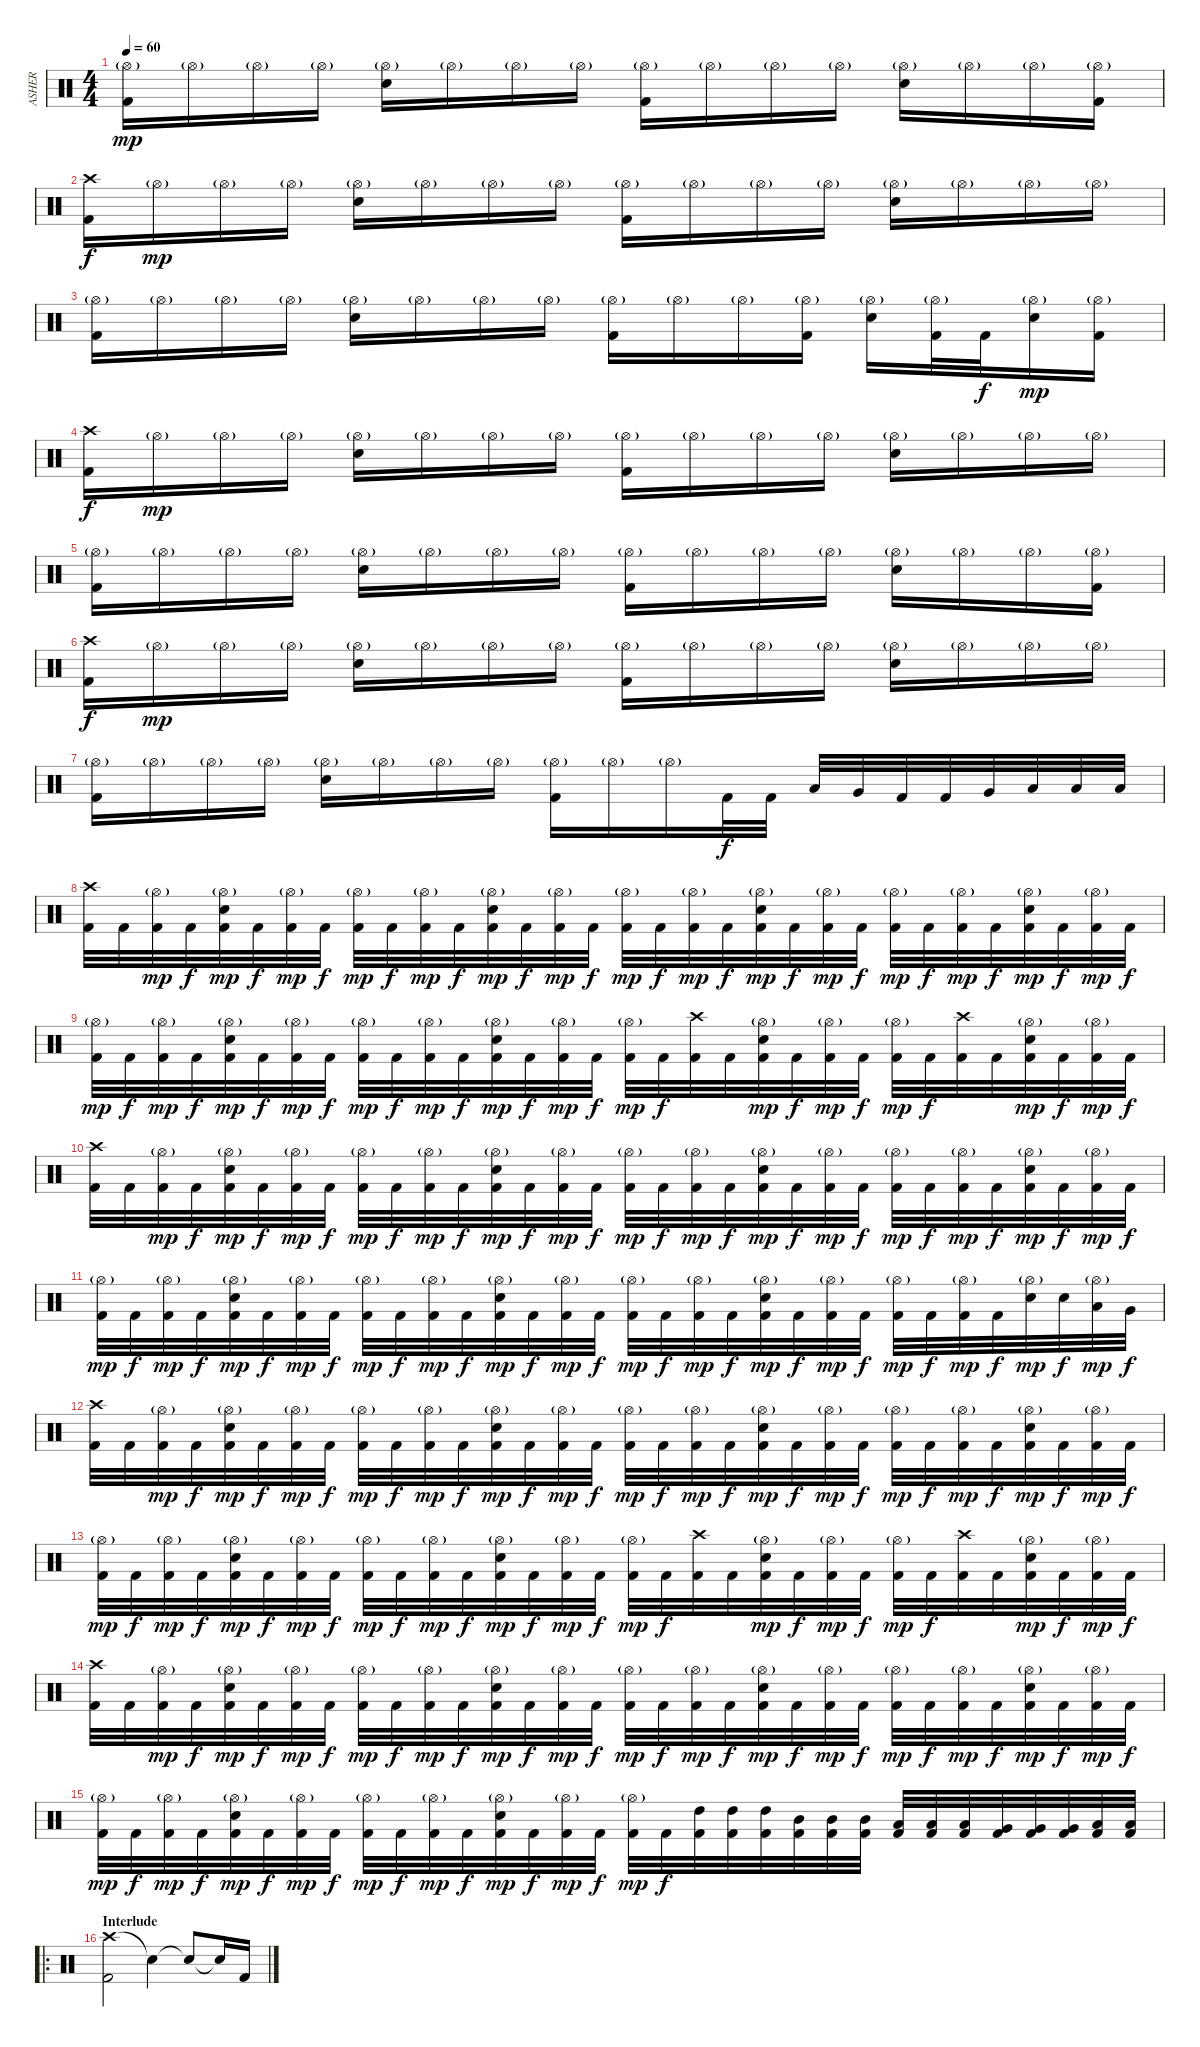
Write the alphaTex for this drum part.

\track ("ASHER" "ASHER") {instrument percussion}
\staff {score}
\articulation defaults
\ts (4 4)
\tempo 60
\clef neutral
\ks c
("Hi-Hat (open)"{g} "Kick (hit) 2").16{dy mp} "Hi-Hat (open)"{g}.16 "Hi-Hat (open)"{g}.16 "Hi-Hat (open)"{g}.16 ("Hi-Hat (open)"{g} "Electric Snare (hit)").16 "Hi-Hat (open)"{g}.16 "Hi-Hat (open)"{g}.16 "Hi-Hat (open)"{g}.16 ("Hi-Hat (open)"{g} "Kick (hit) 2").16 "Hi-Hat (open)"{g}.16 "Hi-Hat (open)"{g}.16 "Hi-Hat (open)"{g}.16 ("Hi-Hat (open)"{g} "Electric Snare (hit)").16 "Hi-Hat (open)"{g}.16 "Hi-Hat (open)"{g}.16 ("Hi-Hat (open)"{g} "Kick (hit) 2").16 |
("Crash high (hit)" "Kick (hit) 2").16{dy f} "Hi-Hat (open)"{g}.16{dy mp} "Hi-Hat (open)"{g}.16 "Hi-Hat (open)"{g}.16 ("Hi-Hat (open)"{g} "Electric Snare (hit)").16 "Hi-Hat (open)"{g}.16 "Hi-Hat (open)"{g}.16 "Hi-Hat (open)"{g}.16 ("Hi-Hat (open)"{g} "Kick (hit) 2").16 "Hi-Hat (open)"{g}.16 "Hi-Hat (open)"{g}.16 "Hi-Hat (open)"{g}.16 ("Hi-Hat (open)"{g} "Electric Snare (hit)").16 "Hi-Hat (open)"{g}.16 "Hi-Hat (open)"{g}.16 "Hi-Hat (open)"{g}.16 |
("Hi-Hat (open)"{g} "Kick (hit) 2").16 "Hi-Hat (open)"{g}.16 "Hi-Hat (open)"{g}.16 "Hi-Hat (open)"{g}.16 ("Hi-Hat (open)"{g} "Electric Snare (hit)").16 "Hi-Hat (open)"{g}.16 "Hi-Hat (open)"{g}.16 "Hi-Hat (open)"{g}.16 ("Hi-Hat (open)"{g} "Kick (hit) 2").16 "Hi-Hat (open)"{g}.16 "Hi-Hat (open)"{g}.16 ("Hi-Hat (open)"{g} "Kick (hit) 2").16 ("Hi-Hat (open)"{g} "Electric Snare (hit)").16 ("Hi-Hat (open)"{g} "Kick (hit) 2").32 "Kick (hit) 2".32{dy f} ("Hi-Hat (open)"{g} "Electric Snare (hit)").16{dy mp} ("Hi-Hat (open)"{g} "Kick (hit) 2").16 |
("Crash high (hit)" "Kick (hit) 2").16{dy f} "Hi-Hat (open)"{g}.16{dy mp} "Hi-Hat (open)"{g}.16 "Hi-Hat (open)"{g}.16 ("Hi-Hat (open)"{g} "Electric Snare (hit)").16 "Hi-Hat (open)"{g}.16 "Hi-Hat (open)"{g}.16 "Hi-Hat (open)"{g}.16 ("Hi-Hat (open)"{g} "Kick (hit) 2").16 "Hi-Hat (open)"{g}.16 "Hi-Hat (open)"{g}.16 "Hi-Hat (open)"{g}.16 ("Hi-Hat (open)"{g} "Electric Snare (hit)").16 "Hi-Hat (open)"{g}.16 "Hi-Hat (open)"{g}.16 "Hi-Hat (open)"{g}.16 |
("Hi-Hat (open)"{g} "Kick (hit) 2").16 "Hi-Hat (open)"{g}.16 "Hi-Hat (open)"{g}.16 "Hi-Hat (open)"{g}.16 ("Hi-Hat (open)"{g} "Electric Snare (hit)").16 "Hi-Hat (open)"{g}.16 "Hi-Hat (open)"{g}.16 "Hi-Hat (open)"{g}.16 ("Hi-Hat (open)"{g} "Kick (hit) 2").16 "Hi-Hat (open)"{g}.16 "Hi-Hat (open)"{g}.16 "Hi-Hat (open)"{g}.16 ("Hi-Hat (open)"{g} "Electric Snare (hit)").16 "Hi-Hat (open)"{g}.16 "Hi-Hat (open)"{g}.16 ("Hi-Hat (open)"{g} "Kick (hit) 2").16 |
("Crash high (hit)" "Kick (hit) 2").16{dy f} "Hi-Hat (open)"{g}.16{dy mp} "Hi-Hat (open)"{g}.16 "Hi-Hat (open)"{g}.16 ("Hi-Hat (open)"{g} "Electric Snare (hit)").16 "Hi-Hat (open)"{g}.16 "Hi-Hat (open)"{g}.16 "Hi-Hat (open)"{g}.16 ("Hi-Hat (open)"{g} "Kick (hit) 2").16 "Hi-Hat (open)"{g}.16 "Hi-Hat (open)"{g}.16 "Hi-Hat (open)"{g}.16 ("Hi-Hat (open)"{g} "Electric Snare (hit)").16 "Hi-Hat (open)"{g}.16 "Hi-Hat (open)"{g}.16 "Hi-Hat (open)"{g}.16 |
("Hi-Hat (open)"{g} "Kick (hit) 2").16 "Hi-Hat (open)"{g}.16 "Hi-Hat (open)"{g}.16 "Hi-Hat (open)"{g}.16 ("Hi-Hat (open)"{g} "Electric Snare (hit)").16 "Hi-Hat (open)"{g}.16 "Hi-Hat (open)"{g}.16 "Hi-Hat (open)"{g}.16 ("Hi-Hat (open)"{g} "Kick (hit) 2").16 "Hi-Hat (open)"{g}.16 "Hi-Hat (open)"{g}.16 "Kick (hit) 2".32{dy f} "Kick (hit) 2".32 "Low Tom (hit)".32 "Very Low Tom (hit)".32 "Kick (hit) 2".32 "Kick (hit) 2".32 "Very Low Tom (hit)".32 "Low Floor Tom (hit)".32 "Low Floor Tom (hit)".32 "Low Floor Tom (hit)".32 |
("Crash high (hit)" "Kick (hit) 2").32 "Kick (hit) 2".32 ("Hi-Hat (open)"{g} "Kick (hit) 2").32{dy mp} "Kick (hit) 2".32{dy f} ("Hi-Hat (open)"{g} "Electric Snare (hit)" "Kick (hit) 2").32{dy mp} "Kick (hit) 2".32{dy f} ("Hi-Hat (open)"{g} "Kick (hit) 2").32{dy mp} "Kick (hit) 2".32{dy f} ("Hi-Hat (open)"{g} "Kick (hit) 2").32{dy mp} "Kick (hit) 2".32{dy f} ("Hi-Hat (open)"{g} "Kick (hit) 2").32{dy mp} "Kick (hit) 2".32{dy f} ("Hi-Hat (open)"{g} "Electric Snare (hit)" "Kick (hit) 2").32{dy mp} "Kick (hit) 2".32{dy f} ("Hi-Hat (open)"{g} "Kick (hit) 2").32{dy mp} "Kick (hit) 2".32{dy f} ("Hi-Hat (open)"{g} "Kick (hit) 2").32{dy mp} "Kick (hit) 2".32{dy f} ("Hi-Hat (open)"{g} "Kick (hit) 2").32{dy mp} "Kick (hit) 2".32{dy f} ("Hi-Hat (open)"{g} "Electric Snare (hit)" "Kick (hit) 2").32{dy mp} "Kick (hit) 2".32{dy f} ("Hi-Hat (open)"{g} "Kick (hit) 2").32{dy mp} "Kick (hit) 2".32{dy f} ("Hi-Hat (open)"{g} "Kick (hit) 2").32{dy mp} "Kick (hit) 2".32{dy f} ("Hi-Hat (open)"{g} "Kick (hit) 2").32{dy mp} "Kick (hit) 2".32{dy f} ("Hi-Hat (open)"{g} "Electric Snare (hit)" "Kick (hit) 2").32{dy mp} "Kick (hit) 2".32{dy f} ("Hi-Hat (open)"{g} "Kick (hit) 2").32{dy mp} "Kick (hit) 2".32{dy f} |
("Hi-Hat (open)"{g} "Kick (hit) 2").32{dy mp} "Kick (hit) 2".32{dy f} ("Hi-Hat (open)"{g} "Kick (hit) 2").32{dy mp} "Kick (hit) 2".32{dy f} ("Hi-Hat (open)"{g} "Electric Snare (hit)" "Kick (hit) 2").32{dy mp} "Kick (hit) 2".32{dy f} ("Hi-Hat (open)"{g} "Kick (hit) 2").32{dy mp} "Kick (hit) 2".32{dy f} ("Hi-Hat (open)"{g} "Kick (hit) 2").32{dy mp} "Kick (hit) 2".32{dy f} ("Hi-Hat (open)"{g} "Kick (hit) 2").32{dy mp} "Kick (hit) 2".32{dy f} ("Hi-Hat (open)"{g} "Electric Snare (hit)" "Kick (hit) 2").32{dy mp} "Kick (hit) 2".32{dy f} ("Hi-Hat (open)"{g} "Kick (hit) 2").32{dy mp} "Kick (hit) 2".32{dy f} ("Hi-Hat (open)"{g} "Kick (hit) 2").32{dy mp} "Kick (hit) 2".32{dy f} ("Crash high (hit)" "Kick (hit) 2").32 "Kick (hit) 2".32 ("Hi-Hat (open)"{g} "Electric Snare (hit)" "Kick (hit) 2").32{dy mp} "Kick (hit) 2".32{dy f} ("Hi-Hat (open)"{g} "Kick (hit) 2").32{dy mp} "Kick (hit) 2".32{dy f} ("Hi-Hat (open)"{g} "Kick (hit) 2").32{dy mp} "Kick (hit) 2".32{dy f} ("Crash high (hit)" "Kick (hit) 2").32 "Kick (hit) 2".32 ("Hi-Hat (open)"{g} "Electric Snare (hit)" "Kick (hit) 2").32{dy mp} "Kick (hit) 2".32{dy f} ("Hi-Hat (open)"{g} "Kick (hit) 2").32{dy mp} "Kick (hit) 2".32{dy f} |
("Crash high (hit)" "Kick (hit) 2").32 "Kick (hit) 2".32 ("Hi-Hat (open)"{g} "Kick (hit) 2").32{dy mp} "Kick (hit) 2".32{dy f} ("Hi-Hat (open)"{g} "Electric Snare (hit)" "Kick (hit) 2").32{dy mp} "Kick (hit) 2".32{dy f} ("Hi-Hat (open)"{g} "Kick (hit) 2").32{dy mp} "Kick (hit) 2".32{dy f} ("Hi-Hat (open)"{g} "Kick (hit) 2").32{dy mp} "Kick (hit) 2".32{dy f} ("Hi-Hat (open)"{g} "Kick (hit) 2").32{dy mp} "Kick (hit) 2".32{dy f} ("Hi-Hat (open)"{g} "Electric Snare (hit)" "Kick (hit) 2").32{dy mp} "Kick (hit) 2".32{dy f} ("Hi-Hat (open)"{g} "Kick (hit) 2").32{dy mp} "Kick (hit) 2".32{dy f} ("Hi-Hat (open)"{g} "Kick (hit) 2").32{dy mp} "Kick (hit) 2".32{dy f} ("Hi-Hat (open)"{g} "Kick (hit) 2").32{dy mp} "Kick (hit) 2".32{dy f} ("Hi-Hat (open)"{g} "Electric Snare (hit)" "Kick (hit) 2").32{dy mp} "Kick (hit) 2".32{dy f} ("Hi-Hat (open)"{g} "Kick (hit) 2").32{dy mp} "Kick (hit) 2".32{dy f} ("Hi-Hat (open)"{g} "Kick (hit) 2").32{dy mp} "Kick (hit) 2".32{dy f} ("Hi-Hat (open)"{g} "Kick (hit) 2").32{dy mp} "Kick (hit) 2".32{dy f} ("Hi-Hat (open)"{g} "Electric Snare (hit)" "Kick (hit) 2").32{dy mp} "Kick (hit) 2".32{dy f} ("Hi-Hat (open)"{g} "Kick (hit) 2").32{dy mp} "Kick (hit) 2".32{dy f} |
("Hi-Hat (open)"{g} "Kick (hit) 2").32{dy mp} "Kick (hit) 2".32{dy f} ("Hi-Hat (open)"{g} "Kick (hit) 2").32{dy mp} "Kick (hit) 2".32{dy f} ("Hi-Hat (open)"{g} "Electric Snare (hit)" "Kick (hit) 2").32{dy mp} "Kick (hit) 2".32{dy f} ("Hi-Hat (open)"{g} "Kick (hit) 2").32{dy mp} "Kick (hit) 2".32{dy f} ("Hi-Hat (open)"{g} "Kick (hit) 2").32{dy mp} "Kick (hit) 2".32{dy f} ("Hi-Hat (open)"{g} "Kick (hit) 2").32{dy mp} "Kick (hit) 2".32{dy f} ("Hi-Hat (open)"{g} "Electric Snare (hit)" "Kick (hit) 2").32{dy mp} "Kick (hit) 2".32{dy f} ("Hi-Hat (open)"{g} "Kick (hit) 2").32{dy mp} "Kick (hit) 2".32{dy f} ("Hi-Hat (open)"{g} "Kick (hit) 2").32{dy mp} "Kick (hit) 2".32{dy f} ("Hi-Hat (open)"{g} "Kick (hit) 2").32{dy mp} "Kick (hit) 2".32{dy f} ("Hi-Hat (open)"{g} "Electric Snare (hit)" "Kick (hit) 2").32{dy mp} "Kick (hit) 2".32{dy f} ("Hi-Hat (open)"{g} "Kick (hit) 2").32{dy mp} "Kick (hit) 2".32{dy f} ("Hi-Hat (open)"{g} "Kick (hit) 2").32{dy mp} "Kick (hit) 2".32{dy f} ("Hi-Hat (open)"{g} "Kick (hit) 2").32{dy mp} "Kick (hit) 2".32{dy f} ("Hi-Hat (open)"{g} "Electric Snare (hit)").32{dy mp} "Electric Snare (hit)".32{dy f} ("Hi-Hat (open)"{g} "Low Tom (hit)").32{dy mp} "Very Low Tom (hit)".32{dy f} |
("Crash high (hit)" "Kick (hit) 2").32 "Kick (hit) 2".32 ("Hi-Hat (open)"{g} "Kick (hit) 2").32{dy mp} "Kick (hit) 2".32{dy f} ("Hi-Hat (open)"{g} "Electric Snare (hit)" "Kick (hit) 2").32{dy mp} "Kick (hit) 2".32{dy f} ("Hi-Hat (open)"{g} "Kick (hit) 2").32{dy mp} "Kick (hit) 2".32{dy f} ("Hi-Hat (open)"{g} "Kick (hit) 2").32{dy mp} "Kick (hit) 2".32{dy f} ("Hi-Hat (open)"{g} "Kick (hit) 2").32{dy mp} "Kick (hit) 2".32{dy f} ("Hi-Hat (open)"{g} "Electric Snare (hit)" "Kick (hit) 2").32{dy mp} "Kick (hit) 2".32{dy f} ("Hi-Hat (open)"{g} "Kick (hit) 2").32{dy mp} "Kick (hit) 2".32{dy f} ("Hi-Hat (open)"{g} "Kick (hit) 2").32{dy mp} "Kick (hit) 2".32{dy f} ("Hi-Hat (open)"{g} "Kick (hit) 2").32{dy mp} "Kick (hit) 2".32{dy f} ("Hi-Hat (open)"{g} "Electric Snare (hit)" "Kick (hit) 2").32{dy mp} "Kick (hit) 2".32{dy f} ("Hi-Hat (open)"{g} "Kick (hit) 2").32{dy mp} "Kick (hit) 2".32{dy f} ("Hi-Hat (open)"{g} "Kick (hit) 2").32{dy mp} "Kick (hit) 2".32{dy f} ("Hi-Hat (open)"{g} "Kick (hit) 2").32{dy mp} "Kick (hit) 2".32{dy f} ("Hi-Hat (open)"{g} "Electric Snare (hit)" "Kick (hit) 2").32{dy mp} "Kick (hit) 2".32{dy f} ("Hi-Hat (open)"{g} "Kick (hit) 2").32{dy mp} "Kick (hit) 2".32{dy f} |
("Hi-Hat (open)"{g} "Kick (hit) 2").32{dy mp} "Kick (hit) 2".32{dy f} ("Hi-Hat (open)"{g} "Kick (hit) 2").32{dy mp} "Kick (hit) 2".32{dy f} ("Hi-Hat (open)"{g} "Electric Snare (hit)" "Kick (hit) 2").32{dy mp} "Kick (hit) 2".32{dy f} ("Hi-Hat (open)"{g} "Kick (hit) 2").32{dy mp} "Kick (hit) 2".32{dy f} ("Hi-Hat (open)"{g} "Kick (hit) 2").32{dy mp} "Kick (hit) 2".32{dy f} ("Hi-Hat (open)"{g} "Kick (hit) 2").32{dy mp} "Kick (hit) 2".32{dy f} ("Hi-Hat (open)"{g} "Electric Snare (hit)" "Kick (hit) 2").32{dy mp} "Kick (hit) 2".32{dy f} ("Hi-Hat (open)"{g} "Kick (hit) 2").32{dy mp} "Kick (hit) 2".32{dy f} ("Hi-Hat (open)"{g} "Kick (hit) 2").32{dy mp} "Kick (hit) 2".32{dy f} ("Crash high (hit)" "Kick (hit) 2").32 "Kick (hit) 2".32 ("Hi-Hat (open)"{g} "Electric Snare (hit)" "Kick (hit) 2").32{dy mp} "Kick (hit) 2".32{dy f} ("Hi-Hat (open)"{g} "Kick (hit) 2").32{dy mp} "Kick (hit) 2".32{dy f} ("Hi-Hat (open)"{g} "Kick (hit) 2").32{dy mp} "Kick (hit) 2".32{dy f} ("Crash high (hit)" "Kick (hit) 2").32 "Kick (hit) 2".32 ("Hi-Hat (open)"{g} "Electric Snare (hit)" "Kick (hit) 2").32{dy mp} "Kick (hit) 2".32{dy f} ("Hi-Hat (open)"{g} "Kick (hit) 2").32{dy mp} "Kick (hit) 2".32{dy f} |
("Crash high (hit)" "Kick (hit) 2").32 "Kick (hit) 2".32 ("Hi-Hat (open)"{g} "Kick (hit) 2").32{dy mp} "Kick (hit) 2".32{dy f} ("Hi-Hat (open)"{g} "Electric Snare (hit)" "Kick (hit) 2").32{dy mp} "Kick (hit) 2".32{dy f} ("Hi-Hat (open)"{g} "Kick (hit) 2").32{dy mp} "Kick (hit) 2".32{dy f} ("Hi-Hat (open)"{g} "Kick (hit) 2").32{dy mp} "Kick (hit) 2".32{dy f} ("Hi-Hat (open)"{g} "Kick (hit) 2").32{dy mp} "Kick (hit) 2".32{dy f} ("Hi-Hat (open)"{g} "Electric Snare (hit)" "Kick (hit) 2").32{dy mp} "Kick (hit) 2".32{dy f} ("Hi-Hat (open)"{g} "Kick (hit) 2").32{dy mp} "Kick (hit) 2".32{dy f} ("Hi-Hat (open)"{g} "Kick (hit) 2").32{dy mp} "Kick (hit) 2".32{dy f} ("Hi-Hat (open)"{g} "Kick (hit) 2").32{dy mp} "Kick (hit) 2".32{dy f} ("Hi-Hat (open)"{g} "Electric Snare (hit)" "Kick (hit) 2").32{dy mp} "Kick (hit) 2".32{dy f} ("Hi-Hat (open)"{g} "Kick (hit) 2").32{dy mp} "Kick (hit) 2".32{dy f} ("Hi-Hat (open)"{g} "Kick (hit) 2").32{dy mp} "Kick (hit) 2".32{dy f} ("Hi-Hat (open)"{g} "Kick (hit) 2").32{dy mp} "Kick (hit) 2".32{dy f} ("Hi-Hat (open)"{g} "Electric Snare (hit)" "Kick (hit) 2").32{dy mp} "Kick (hit) 2".32{dy f} ("Hi-Hat (open)"{g} "Kick (hit) 2").32{dy mp} "Kick (hit) 2".32{dy f} |
("Hi-Hat (open)"{g} "Kick (hit) 2").32{dy mp} "Kick (hit) 2".32{dy f} ("Hi-Hat (open)"{g} "Kick (hit) 2").32{dy mp} "Kick (hit) 2".32{dy f} ("Hi-Hat (open)"{g} "Electric Snare (hit)" "Kick (hit) 2").32{dy mp} "Kick (hit) 2".32{dy f} ("Hi-Hat (open)"{g} "Kick (hit) 2").32{dy mp} "Kick (hit) 2".32{dy f} ("Hi-Hat (open)"{g} "Kick (hit) 2").32{dy mp} "Kick (hit) 2".32{dy f} ("Hi-Hat (open)"{g} "Kick (hit) 2").32{dy mp} "Kick (hit) 2".32{dy f} ("Hi-Hat (open)"{g} "Electric Snare (hit)" "Kick (hit) 2").32{dy mp} "Kick (hit) 2".32{dy f} ("Hi-Hat (open)"{g} "Kick (hit) 2").32{dy mp} "Kick (hit) 2".32{dy f} ("Hi-Hat (open)"{g} "Kick (hit) 2").32{dy mp} "Kick (hit) 2".32{dy f} ("High Tom (hit)" "Kick (hit) 2").32 ("High Tom (hit)" "Kick (hit) 2").32 ("High Tom (hit)" "Kick (hit) 2").32 ("Mid Tom (hit)" "Kick (hit) 2").32 ("Mid Tom (hit)" "Kick (hit) 2").32 ("Mid Tom (hit)" "Kick (hit) 2").32 ("Low Tom (hit)" "Kick (hit) 2").32 ("Low Tom (hit)" "Kick (hit) 2").32 ("Low Tom (hit)" "Kick (hit) 2").32 ("Very Low Tom (hit)" "Kick (hit) 2").32 ("Very Low Tom (hit)" "Kick (hit) 2").32 ("Very Low Tom (hit)" "Kick (hit) 2").32 ("Low Floor Tom (hit)" "Kick (hit) 2").32 ("Low Floor Tom (hit)" "Kick (hit) 2").32 |
\ro
\section ("" "Interlude")
("Crash high (hit)" "Kick (hit) 2").2 "Snare (hit)"{t}.4 "Snare (hit)"{t}.8 "Snare (hit)"{t}.16 "Kick (hit) 2".16
